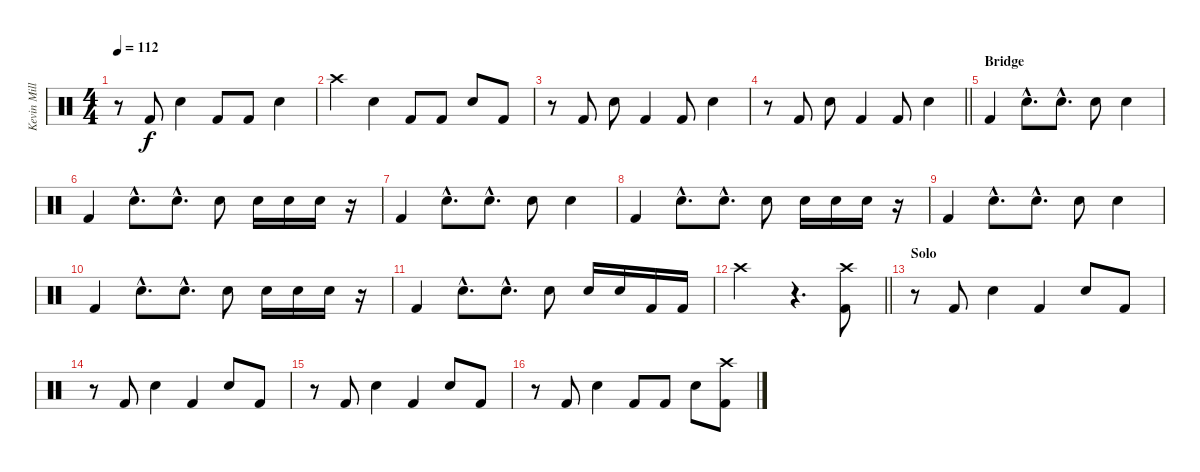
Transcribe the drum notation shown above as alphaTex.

\track ("Kevin Miller (Drums)" "Kevin Mill") {instrument percussion}
\staff {score}
\articulation defaults
\ts (4 4)
\tempo 112
\clef neutral
\ks c
r.8{dy f} "Kick (hit) 2".8 "Electric Snare (hit)".4 "Kick (hit) 2".8 "Kick (hit) 2".8 "Electric Snare (hit)".4 |
"Crash high (hit)".4 "Electric Snare (hit)".4 "Kick (hit) 2".8 "Kick (hit) 2".8 "Electric Snare (hit)".8 "Kick (hit) 2".8 |
r.8 "Kick (hit) 2".8 "Electric Snare (hit)".8 "Kick (hit) 2".4 "Kick (hit) 2".8 "Electric Snare (hit)".4 |
\barLineRight lightlight
r.8 "Kick (hit) 2".8 "Electric Snare (hit)".8 "Kick (hit) 2".4 "Kick (hit) 2".8 "Electric Snare (hit)".4 |
\section ("" "Bridge")
"Kick (hit) 2".4 "Electric Snare (hit)"{hac}.8{d} "Electric Snare (hit)"{hac}.8{d} "Electric Snare (hit)".8 "Electric Snare (hit)".4 |
"Kick (hit) 2".4 "Electric Snare (hit)"{hac}.8{d} "Electric Snare (hit)"{hac}.8{d} "Electric Snare (hit)".8 "Electric Snare (hit)".16 "Electric Snare (hit)".16 "Electric Snare (hit)".16 r.16 |
"Kick (hit) 2".4 "Electric Snare (hit)"{hac}.8{d} "Electric Snare (hit)"{hac}.8{d} "Electric Snare (hit)".8 "Electric Snare (hit)".4 |
"Kick (hit) 2".4 "Electric Snare (hit)"{hac}.8{d} "Electric Snare (hit)"{hac}.8{d} "Electric Snare (hit)".8 "Electric Snare (hit)".16 "Electric Snare (hit)".16 "Electric Snare (hit)".16 r.16 |
"Kick (hit) 2".4 "Electric Snare (hit)"{hac}.8{d} "Electric Snare (hit)"{hac}.8{d} "Electric Snare (hit)".8 "Electric Snare (hit)".4 |
"Kick (hit) 2".4 "Electric Snare (hit)"{hac}.8{d} "Electric Snare (hit)"{hac}.8{d} "Electric Snare (hit)".8 "Electric Snare (hit)".16 "Electric Snare (hit)".16 "Electric Snare (hit)".16 r.16 |
"Kick (hit) 2".4 "Electric Snare (hit)"{hac}.8{d} "Electric Snare (hit)"{hac}.8{d} "Electric Snare (hit)".8 "Electric Snare (hit)".16 "Electric Snare (hit)".16 "Kick (hit) 2".16 "Kick (hit) 2".16 |
\barLineRight lightlight "Crash high (hit)".2
r.4{d} ("Crash high (hit)" "Kick (hit) 2").8 |
\section ("" "Solo")
r.8 "Kick (hit) 2".8 "Electric Snare (hit)".4 "Kick (hit) 2".4 "Electric Snare (hit)".8 "Kick (hit) 2".8 |
r.8 "Kick (hit) 2".8 "Electric Snare (hit)".4 "Kick (hit) 2".4 "Electric Snare (hit)".8 "Kick (hit) 2".8 |
r.8 "Kick (hit) 2".8 "Electric Snare (hit)".4 "Kick (hit) 2".4 "Electric Snare (hit)".8 "Kick (hit) 2".8 |
r.8 "Kick (hit) 2".8 "Electric Snare (hit)".4 "Kick (hit) 2".8 "Kick (hit) 2".8 "Electric Snare (hit)".8 ("Crash high (hit)" "Kick (hit) 2").8
